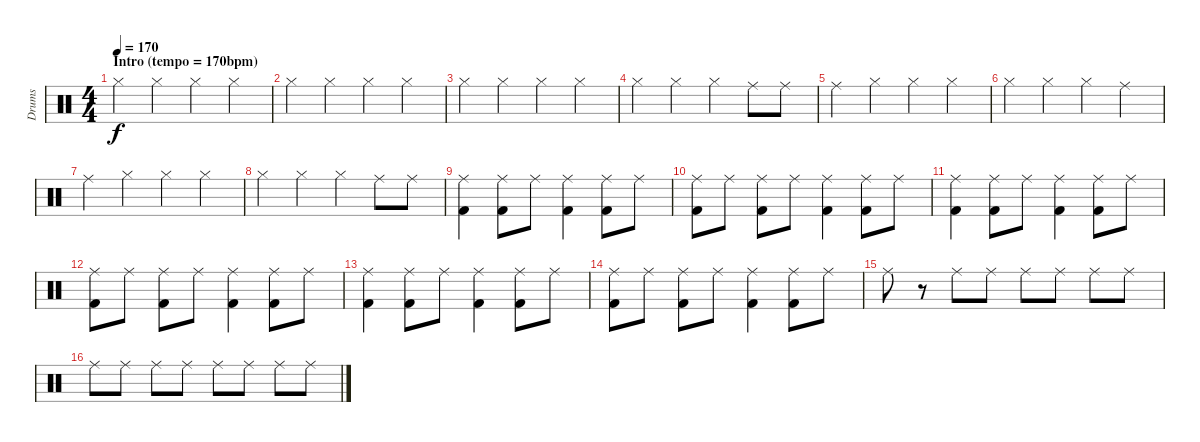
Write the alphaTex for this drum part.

\track ("Drums" "Drums") {instrument percussion}
\staff {score}
\articulation defaults
\ts (4 4)
\section ("" "Intro (tempo = 170bpm)")
\tempo 170
\clef neutral
\ks c "Hi-Hat (closed)".4{dy f} "Hi-Hat (closed)".4 "Hi-Hat (closed)".4 "Hi-Hat (closed)".4
|
"Hi-Hat (closed)".4 "Hi-Hat (closed)".4 "Hi-Hat (closed)".4 "Hi-Hat (closed)".4 |
"Hi-Hat (closed)".4 "Hi-Hat (closed)".4 "Hi-Hat (closed)".4 "Hi-Hat (closed)".4 |
"Hi-Hat (closed)".4 "Hi-Hat (closed)".4 "Hi-Hat (closed)".4 "Ride (middle)".8 "Ride (middle)".8 |
"Ride (middle)".4 "Hi-Hat (closed)".4 "Hi-Hat (closed)".4 "Hi-Hat (closed)".4 |
"Hi-Hat (closed)".4 "Hi-Hat (closed)".4 "Hi-Hat (closed)".4 "Ride (middle)".4 |
"Ride (middle)".4 "Hi-Hat (closed)".4 "Hi-Hat (closed)".4 "Hi-Hat (closed)".4 |
"Hi-Hat (closed)".4 "Hi-Hat (closed)".4 "Hi-Hat (closed)".4 "Ride (middle)".8 "Ride (middle)".8 |
("Ride (middle)" "Kick (hit) 2").4 ("Ride (middle)" "Kick (hit) 2").8 "Ride (middle)".8 ("Ride (middle)" "Kick (hit) 2").4 ("Ride (middle)" "Kick (hit) 2").8 "Ride (middle)".8 |
("Ride (middle)" "Kick (hit) 2").8 "Ride (middle)".8 ("Ride (middle)" "Kick (hit) 2").8 "Ride (middle)".8 ("Ride (middle)" "Kick (hit) 2").4 ("Ride (middle)" "Kick (hit) 2").8 "Ride (middle)".8 |
("Ride (middle)" "Kick (hit) 2").4 ("Ride (middle)" "Kick (hit) 2").8 "Ride (middle)".8 ("Ride (middle)" "Kick (hit) 2").4 ("Ride (middle)" "Kick (hit) 2").8 "Ride (middle)".8 |
("Ride (middle)" "Kick (hit) 2").8 "Ride (middle)".8 ("Ride (middle)" "Kick (hit) 2").8 "Ride (middle)".8 ("Ride (middle)" "Kick (hit) 2").4 ("Ride (middle)" "Kick (hit) 2").8 "Ride (middle)".8 |
("Ride (middle)" "Kick (hit) 2").4 ("Ride (middle)" "Kick (hit) 2").8 "Ride (middle)".8 ("Ride (middle)" "Kick (hit) 2").4 ("Ride (middle)" "Kick (hit) 2").8 "Ride (middle)".8 |
("Ride (middle)" "Kick (hit) 2").8 "Ride (middle)".8 ("Ride (middle)" "Kick (hit) 2").8 "Ride (middle)".8 ("Ride (middle)" "Kick (hit) 2").4 ("Ride (middle)" "Kick (hit) 2").8 "Ride (middle)".8 |
"Ride (middle)".8 r.8 "Ride (middle)".8 "Ride (middle)".8 "Ride (middle)".8 "Ride (middle)".8 "Ride (middle)".8 "Ride (middle)".8 |
"Ride (middle)".8 "Ride (middle)".8 "Ride (middle)".8 "Ride (middle)".8 "Ride (middle)".8 "Ride (middle)".8 "Ride (middle)".8 "Ride (middle)".8
